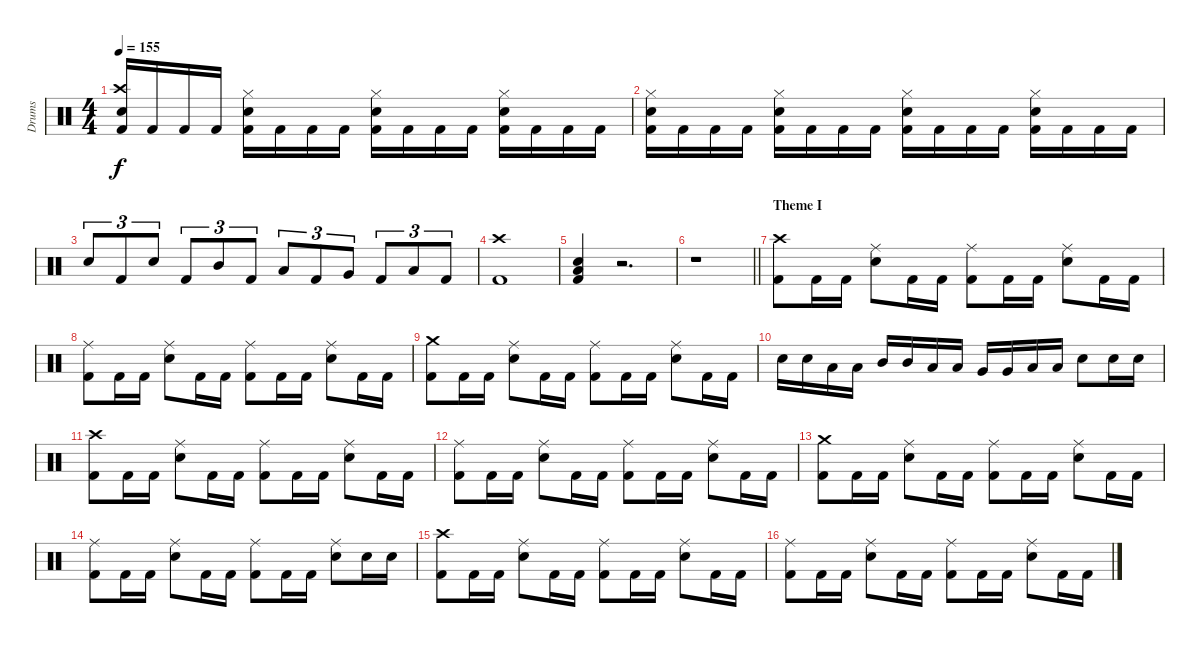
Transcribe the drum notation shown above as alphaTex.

\track ("Drums" "Drums") {instrument percussion}
\staff {score}
\articulation defaults
\ts (4 4)
\tempo 155
\clef neutral
\ks c
("Kick (hit) 2" "Crash high (hit)" "Electric Snare (hit)").16{dy f} "Kick (hit) 2".16 "Kick (hit) 2".16 "Kick (hit) 2".16 ("Kick (hit) 2" "Hi-Hat (closed)" "Electric Snare (hit)").16 "Kick (hit) 2".16 "Kick (hit) 2".16 "Kick (hit) 2".16 ("Kick (hit) 2" "Hi-Hat (closed)" "Electric Snare (hit)").16 "Kick (hit) 2".16 "Kick (hit) 2".16 "Kick (hit) 2".16 ("Kick (hit) 2" "Hi-Hat (closed)" "Electric Snare (hit)").16 "Kick (hit) 2".16 "Kick (hit) 2".16 "Kick (hit) 2".16 |
("Kick (hit) 2" "Hi-Hat (closed)" "Electric Snare (hit)").16 "Kick (hit) 2".16 "Kick (hit) 2".16 "Kick (hit) 2".16 ("Kick (hit) 2" "Hi-Hat (closed)" "Electric Snare (hit)").16 "Kick (hit) 2".16 "Kick (hit) 2".16 "Kick (hit) 2".16 ("Kick (hit) 2" "Hi-Hat (closed)" "Electric Snare (hit)").16 "Kick (hit) 2".16 "Kick (hit) 2".16 "Kick (hit) 2".16 ("Kick (hit) 2" "Hi-Hat (closed)" "Electric Snare (hit)").16 "Kick (hit) 2".16 "Kick (hit) 2".16 "Kick (hit) 2".16 |
"Electric Snare (hit)".8{tu (3 2)} "Kick (hit) 2".8{tu (3 2)} "Electric Snare (hit)".8{tu (3 2)} "Kick (hit) 2".8{tu (3 2)} "Mid Tom (hit)".8{tu (3 2)} "Kick (hit) 2".8{tu (3 2)} "Low Tom (hit)".8{tu (3 2)} "Kick (hit) 2".8{tu (3 2)} "Very Low Tom (hit)".8{tu (3 2)} "Kick (hit) 2".8{tu (3 2)} "Low Floor Tom (hit)".8{tu (3 2)} "Kick (hit) 2".8{tu (3 2)} |
("Kick (hit) 2" "Crash high (hit)").1 |
("Kick (hit) 2" "Low Floor Tom (hit)" "Electric Snare (hit)").4 r.2{d} |
\barLineRight lightlight
r.1 |
\section ("" "Theme I")
("Kick (hit) 2" "Crash high (hit)").8 "Kick (hit) 2".16 "Kick (hit) 2".16 ("Ride (middle)" "Electric Snare (hit)").8 "Kick (hit) 2".16 "Kick (hit) 2".16 ("Kick (hit) 2" "Ride (middle)").8 "Kick (hit) 2".16 "Kick (hit) 2".16 ("Ride (middle)" "Electric Snare (hit)").8 "Kick (hit) 2".16 "Kick (hit) 2".16 |
("Kick (hit) 2" "Ride (middle)").8 "Kick (hit) 2".16 "Kick (hit) 2".16 ("Ride (middle)" "Electric Snare (hit)").8 "Kick (hit) 2".16 "Kick (hit) 2".16 ("Kick (hit) 2" "Ride (middle)").8 "Kick (hit) 2".16 "Kick (hit) 2".16 ("Ride (middle)" "Electric Snare (hit)").8 "Kick (hit) 2".16 "Kick (hit) 2".16 |
("Kick (hit) 2" "Crash medium (hit)").8 "Kick (hit) 2".16 "Kick (hit) 2".16 ("Ride (middle)" "Electric Snare (hit)").8 "Kick (hit) 2".16 "Kick (hit) 2".16 ("Kick (hit) 2" "Ride (middle)").8 "Kick (hit) 2".16 "Kick (hit) 2".16 ("Ride (middle)" "Electric Snare (hit)").8 "Kick (hit) 2".16 "Kick (hit) 2".16 |
"Electric Snare (hit)".16 "Electric Snare (hit)".16 "Low Tom (hit)".16 "Low Tom (hit)".16 "Mid Tom (hit)".16 "Mid Tom (hit)".16 "Low Tom (hit)".16 "Low Tom (hit)".16 "Very Low Tom (hit)".16 "Very Low Tom (hit)".16 "Low Tom (hit)".16 "Low Tom (hit)".16 "Electric Snare (hit)".8 "Electric Snare (hit)".16 "Electric Snare (hit)".16 |
("Kick (hit) 2" "Crash high (hit)").8 "Kick (hit) 2".16 "Kick (hit) 2".16 ("Ride (middle)" "Electric Snare (hit)").8 "Kick (hit) 2".16 "Kick (hit) 2".16 ("Kick (hit) 2" "Ride (middle)").8 "Kick (hit) 2".16 "Kick (hit) 2".16 ("Ride (middle)" "Electric Snare (hit)").8 "Kick (hit) 2".16 "Kick (hit) 2".16 |
("Kick (hit) 2" "Ride (middle)").8 "Kick (hit) 2".16 "Kick (hit) 2".16 ("Ride (middle)" "Electric Snare (hit)").8 "Kick (hit) 2".16 "Kick (hit) 2".16 ("Kick (hit) 2" "Ride (middle)").8 "Kick (hit) 2".16 "Kick (hit) 2".16 ("Ride (middle)" "Electric Snare (hit)").8 "Kick (hit) 2".16 "Kick (hit) 2".16 |
("Kick (hit) 2" "Crash medium (hit)").8 "Kick (hit) 2".16 "Kick (hit) 2".16 ("Ride (middle)" "Electric Snare (hit)").8 "Kick (hit) 2".16 "Kick (hit) 2".16 ("Kick (hit) 2" "Ride (middle)").8 "Kick (hit) 2".16 "Kick (hit) 2".16 ("Ride (middle)" "Electric Snare (hit)").8 "Kick (hit) 2".16 "Kick (hit) 2".16 |
("Kick (hit) 2" "Ride (middle)").8 "Kick (hit) 2".16 "Kick (hit) 2".16 ("Ride (middle)" "Electric Snare (hit)").8 "Kick (hit) 2".16 "Kick (hit) 2".16 ("Kick (hit) 2" "Ride (middle)").8 "Kick (hit) 2".16 "Kick (hit) 2".16 ("Ride (middle)" "Electric Snare (hit)").8 "Electric Snare (hit)".16 "Electric Snare (hit)".16 |
("Kick (hit) 2" "Crash high (hit)").8 "Kick (hit) 2".16 "Kick (hit) 2".16 ("Ride (middle)" "Electric Snare (hit)").8 "Kick (hit) 2".16 "Kick (hit) 2".16 ("Kick (hit) 2" "Ride (middle)").8 "Kick (hit) 2".16 "Kick (hit) 2".16 ("Ride (middle)" "Electric Snare (hit)").8 "Kick (hit) 2".16 "Kick (hit) 2".16 |
("Kick (hit) 2" "Ride (middle)").8 "Kick (hit) 2".16 "Kick (hit) 2".16 ("Ride (middle)" "Electric Snare (hit)").8 "Kick (hit) 2".16 "Kick (hit) 2".16 ("Kick (hit) 2" "Ride (middle)").8 "Kick (hit) 2".16 "Kick (hit) 2".16 ("Ride (middle)" "Electric Snare (hit)").8 "Kick (hit) 2".16 "Kick (hit) 2".16
